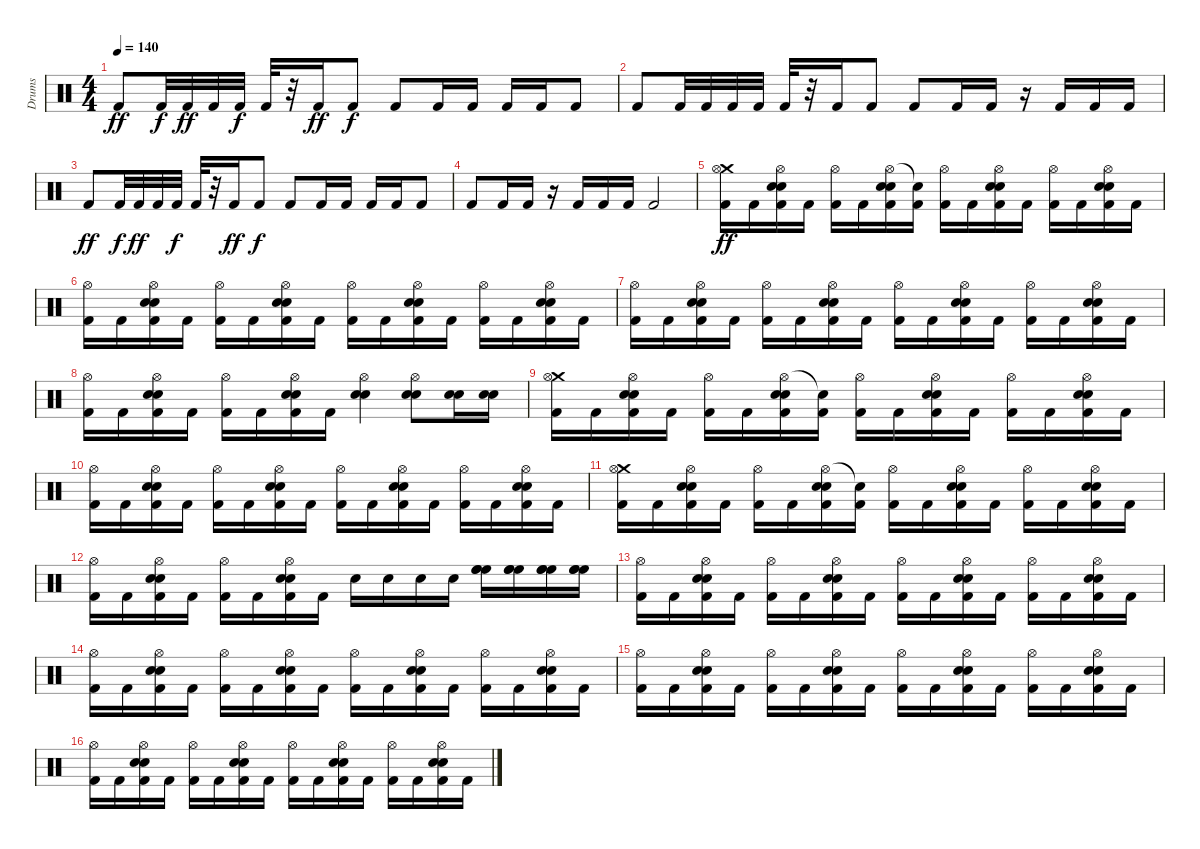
\track ("Drums" "Drums") {instrument percussion}
\staff {score}
\articulation defaults
\ts (4 4)
\tempo 140
\clef neutral
\ks c "Kick (hit) 2".8{dy ff} "Kick (hit) 2".32{dy f} "Kick (hit) 2".32{dy ff} "Kick (hit) 2".32 "Kick (hit) 2".32{dy f} "Kick (hit) 2".32
r.32 "Kick (hit) 2".16{dy ff} "Kick (hit) 2".8{dy f} "Kick (hit) 2".8 "Kick (hit) 2".16 "Kick (hit) 2".16 "Kick (hit) 2".16 "Kick (hit) 2".16 "Kick (hit) 2".8 |
"Kick (hit) 2".8 "Kick (hit) 2".32 "Kick (hit) 2".32 "Kick (hit) 2".32 "Kick (hit) 2".32 "Kick (hit) 2".32 r.32 "Kick (hit) 2".16 "Kick (hit) 2".8 "Kick (hit) 2".8 "Kick (hit) 2".16 "Kick (hit) 2".16 r.16 "Kick (hit) 2".16 "Kick (hit) 2".16 "Kick (hit) 2".16 |
"Kick (hit) 2".8{dy ff} "Kick (hit) 2".32{dy f} "Kick (hit) 2".32{dy ff} "Kick (hit) 2".32 "Kick (hit) 2".32{dy f} "Kick (hit) 2".32 r.32 "Kick (hit) 2".16{dy ff} "Kick (hit) 2".8{dy f} "Kick (hit) 2".8 "Kick (hit) 2".16 "Kick (hit) 2".16 "Kick (hit) 2".16 "Kick (hit) 2".16 "Kick (hit) 2".8 |
"Kick (hit) 2".8 "Kick (hit) 2".16 "Kick (hit) 2".16 r.16 "Kick (hit) 2".16 "Kick (hit) 2".16 "Kick (hit) 2".16 "Kick (hit) 2".2 |
("Crash medium (hit)" "Hi-Hat (open)" "Kick (hit) 2").16{dy ff} "Kick (hit) 2".16 ("Hi-Hat (open)" "Electric Snare (hit)" "Electric Snare (hit)" "Kick (hit) 2").16 "Kick (hit) 2".16 ("Hi-Hat (open)" "Kick (hit) 2").16 "Kick (hit) 2".16 ("Hi-Hat (open)" "Electric Snare (hit)" "Electric Snare (hit)" "Kick (hit) 2").16 ("Snare (hit)"{t} "Kick (hit) 2").16 ("Hi-Hat (open)" "Kick (hit) 2").16 "Kick (hit) 2".16 ("Hi-Hat (open)" "Electric Snare (hit)" "Electric Snare (hit)" "Kick (hit) 2").16 "Kick (hit) 2".16 ("Hi-Hat (open)" "Kick (hit) 2").16 "Kick (hit) 2".16 ("Hi-Hat (open)" "Electric Snare (hit)" "Electric Snare (hit)" "Kick (hit) 2").16 "Kick (hit) 2".16 |
("Hi-Hat (open)" "Kick (hit) 2").16 "Kick (hit) 2".16 ("Hi-Hat (open)" "Electric Snare (hit)" "Electric Snare (hit)" "Kick (hit) 2").16 "Kick (hit) 2".16 ("Hi-Hat (open)" "Kick (hit) 2").16 "Kick (hit) 2".16 ("Hi-Hat (open)" "Electric Snare (hit)" "Electric Snare (hit)" "Kick (hit) 2").16 "Kick (hit) 2".16 ("Hi-Hat (open)" "Kick (hit) 2").16 "Kick (hit) 2".16 ("Hi-Hat (open)" "Electric Snare (hit)" "Electric Snare (hit)" "Kick (hit) 2").16 "Kick (hit) 2".16 ("Hi-Hat (open)" "Kick (hit) 2").16 "Kick (hit) 2".16 ("Hi-Hat (open)" "Electric Snare (hit)" "Electric Snare (hit)" "Kick (hit) 2").16 "Kick (hit) 2".16 |
("Hi-Hat (open)" "Kick (hit) 2").16 "Kick (hit) 2".16 ("Hi-Hat (open)" "Electric Snare (hit)" "Electric Snare (hit)" "Kick (hit) 2").16 "Kick (hit) 2".16 ("Hi-Hat (open)" "Kick (hit) 2").16 "Kick (hit) 2".16 ("Hi-Hat (open)" "Electric Snare (hit)" "Electric Snare (hit)" "Kick (hit) 2").16 "Kick (hit) 2".16 ("Hi-Hat (open)" "Kick (hit) 2").16 "Kick (hit) 2".16 ("Hi-Hat (open)" "Electric Snare (hit)" "Electric Snare (hit)" "Kick (hit) 2").16 "Kick (hit) 2".16 ("Hi-Hat (open)" "Kick (hit) 2").16 "Kick (hit) 2".16 ("Hi-Hat (open)" "Electric Snare (hit)" "Electric Snare (hit)" "Kick (hit) 2").16 "Kick (hit) 2".16 |
("Hi-Hat (open)" "Kick (hit) 2").16 "Kick (hit) 2".16 ("Hi-Hat (open)" "Electric Snare (hit)" "Electric Snare (hit)" "Kick (hit) 2").16 "Kick (hit) 2".16 ("Hi-Hat (open)" "Kick (hit) 2").16 "Kick (hit) 2".16 ("Hi-Hat (open)" "Electric Snare (hit)" "Electric Snare (hit)" "Kick (hit) 2").16 "Kick (hit) 2".16 ("Hi-Hat (open)" "Electric Snare (hit)" "Electric Snare (hit)").4 ("Hi-Hat (open)" "Electric Snare (hit)" "Electric Snare (hit)").8 ("Electric Snare (hit)" "Electric Snare (hit)").16 ("Electric Snare (hit)" "Electric Snare (hit)").16 |
("Crash medium (hit)" "Hi-Hat (open)" "Kick (hit) 2").16 "Kick (hit) 2".16 ("Hi-Hat (open)" "Electric Snare (hit)" "Electric Snare (hit)" "Kick (hit) 2").16 "Kick (hit) 2".16 ("Hi-Hat (open)" "Kick (hit) 2").16 "Kick (hit) 2".16 ("Hi-Hat (open)" "Electric Snare (hit)" "Electric Snare (hit)" "Kick (hit) 2").16 ("Snare (hit)"{t} "Kick (hit) 2").16 ("Hi-Hat (open)" "Kick (hit) 2").16 "Kick (hit) 2".16 ("Hi-Hat (open)" "Electric Snare (hit)" "Electric Snare (hit)" "Kick (hit) 2").16 "Kick (hit) 2".16 ("Hi-Hat (open)" "Kick (hit) 2").16 "Kick (hit) 2".16 ("Hi-Hat (open)" "Electric Snare (hit)" "Electric Snare (hit)" "Kick (hit) 2").16 "Kick (hit) 2".16 |
("Hi-Hat (open)" "Kick (hit) 2").16 "Kick (hit) 2".16 ("Hi-Hat (open)" "Electric Snare (hit)" "Electric Snare (hit)" "Kick (hit) 2").16 "Kick (hit) 2".16 ("Hi-Hat (open)" "Kick (hit) 2").16 "Kick (hit) 2".16 ("Hi-Hat (open)" "Electric Snare (hit)" "Electric Snare (hit)" "Kick (hit) 2").16 "Kick (hit) 2".16 ("Hi-Hat (open)" "Kick (hit) 2").16 "Kick (hit) 2".16 ("Hi-Hat (open)" "Electric Snare (hit)" "Electric Snare (hit)" "Kick (hit) 2").16 "Kick (hit) 2".16 ("Hi-Hat (open)" "Kick (hit) 2").16 "Kick (hit) 2".16 ("Hi-Hat (open)" "Electric Snare (hit)" "Electric Snare (hit)" "Kick (hit) 2").16 "Kick (hit) 2".16 |
("Crash medium (hit)" "Hi-Hat (open)" "Kick (hit) 2").16 "Kick (hit) 2".16 ("Hi-Hat (open)" "Electric Snare (hit)" "Electric Snare (hit)" "Kick (hit) 2").16 "Kick (hit) 2".16 ("Hi-Hat (open)" "Kick (hit) 2").16 "Kick (hit) 2".16 ("Hi-Hat (open)" "Electric Snare (hit)" "Electric Snare (hit)" "Kick (hit) 2").16 ("Snare (hit)"{t} "Kick (hit) 2").16 ("Hi-Hat (open)" "Kick (hit) 2").16 "Kick (hit) 2".16 ("Hi-Hat (open)" "Electric Snare (hit)" "Electric Snare (hit)" "Kick (hit) 2").16 "Kick (hit) 2".16 ("Hi-Hat (open)" "Kick (hit) 2").16 "Kick (hit) 2".16 ("Hi-Hat (open)" "Electric Snare (hit)" "Electric Snare (hit)" "Kick (hit) 2").16 "Kick (hit) 2".16 |
("Hi-Hat (open)" "Kick (hit) 2").16 "Kick (hit) 2".16 ("Hi-Hat (open)" "Electric Snare (hit)" "Electric Snare (hit)" "Kick (hit) 2").16 "Kick (hit) 2".16 ("Hi-Hat (open)" "Kick (hit) 2").16 "Kick (hit) 2".16 ("Hi-Hat (open)" "Electric Snare (hit)" "Electric Snare (hit)" "Kick (hit) 2").16 "Kick (hit) 2".16 "Electric Snare (hit)".16 "Electric Snare (hit)".16 "Electric Snare (hit)".16 "Electric Snare (hit)".16 ("High Floor Tom (hit)" "High Floor Tom (hit)" "High Floor Tom (hit)").16 ("High Floor Tom (hit)" "High Floor Tom (hit)" "High Floor Tom (hit)").16 ("High Floor Tom (hit)" "High Floor Tom (hit)" "High Floor Tom (hit)").16 ("High Floor Tom (hit)" "High Floor Tom (hit)" "High Floor Tom (hit)").16 |
("Hi-Hat (open)" "Kick (hit) 2").16 "Kick (hit) 2".16 ("Hi-Hat (open)" "Electric Snare (hit)" "Electric Snare (hit)" "Kick (hit) 2").16 "Kick (hit) 2".16 ("Hi-Hat (open)" "Kick (hit) 2").16 "Kick (hit) 2".16 ("Hi-Hat (open)" "Electric Snare (hit)" "Electric Snare (hit)" "Kick (hit) 2").16 "Kick (hit) 2".16 ("Hi-Hat (open)" "Kick (hit) 2").16 "Kick (hit) 2".16 ("Hi-Hat (open)" "Electric Snare (hit)" "Electric Snare (hit)" "Kick (hit) 2").16 "Kick (hit) 2".16 ("Hi-Hat (open)" "Kick (hit) 2").16 "Kick (hit) 2".16 ("Hi-Hat (open)" "Electric Snare (hit)" "Electric Snare (hit)" "Kick (hit) 2").16 "Kick (hit) 2".16 |
("Hi-Hat (open)" "Kick (hit) 2").16 "Kick (hit) 2".16 ("Hi-Hat (open)" "Electric Snare (hit)" "Electric Snare (hit)" "Kick (hit) 2").16 "Kick (hit) 2".16 ("Hi-Hat (open)" "Kick (hit) 2").16 "Kick (hit) 2".16 ("Hi-Hat (open)" "Electric Snare (hit)" "Electric Snare (hit)" "Kick (hit) 2").16 "Kick (hit) 2".16 ("Hi-Hat (open)" "Kick (hit) 2").16 "Kick (hit) 2".16 ("Hi-Hat (open)" "Electric Snare (hit)" "Electric Snare (hit)" "Kick (hit) 2").16 "Kick (hit) 2".16 ("Hi-Hat (open)" "Kick (hit) 2").16 "Kick (hit) 2".16 ("Hi-Hat (open)" "Electric Snare (hit)" "Electric Snare (hit)" "Kick (hit) 2").16 "Kick (hit) 2".16 |
("Hi-Hat (open)" "Kick (hit) 2").16 "Kick (hit) 2".16 ("Hi-Hat (open)" "Electric Snare (hit)" "Electric Snare (hit)" "Kick (hit) 2").16 "Kick (hit) 2".16 ("Hi-Hat (open)" "Kick (hit) 2").16 "Kick (hit) 2".16 ("Hi-Hat (open)" "Electric Snare (hit)" "Electric Snare (hit)" "Kick (hit) 2").16 "Kick (hit) 2".16 ("Hi-Hat (open)" "Kick (hit) 2").16 "Kick (hit) 2".16 ("Hi-Hat (open)" "Electric Snare (hit)" "Electric Snare (hit)" "Kick (hit) 2").16 "Kick (hit) 2".16 ("Hi-Hat (open)" "Kick (hit) 2").16 "Kick (hit) 2".16 ("Hi-Hat (open)" "Electric Snare (hit)" "Electric Snare (hit)" "Kick (hit) 2").16 "Kick (hit) 2".16 |
("Hi-Hat (open)" "Kick (hit) 2").16 "Kick (hit) 2".16 ("Hi-Hat (open)" "Electric Snare (hit)" "Electric Snare (hit)" "Kick (hit) 2").16 "Kick (hit) 2".16 ("Hi-Hat (open)" "Kick (hit) 2").16 "Kick (hit) 2".16 ("Hi-Hat (open)" "Electric Snare (hit)" "Electric Snare (hit)" "Kick (hit) 2").16 "Kick (hit) 2".16 ("Hi-Hat (open)" "Kick (hit) 2").16 "Kick (hit) 2".16 ("Hi-Hat (open)" "Electric Snare (hit)" "Electric Snare (hit)" "Kick (hit) 2").16 "Kick (hit) 2".16 ("Hi-Hat (open)" "Kick (hit) 2").16 "Kick (hit) 2".16 ("Hi-Hat (open)" "Electric Snare (hit)" "Electric Snare (hit)" "Kick (hit) 2").16 "Kick (hit) 2".16
